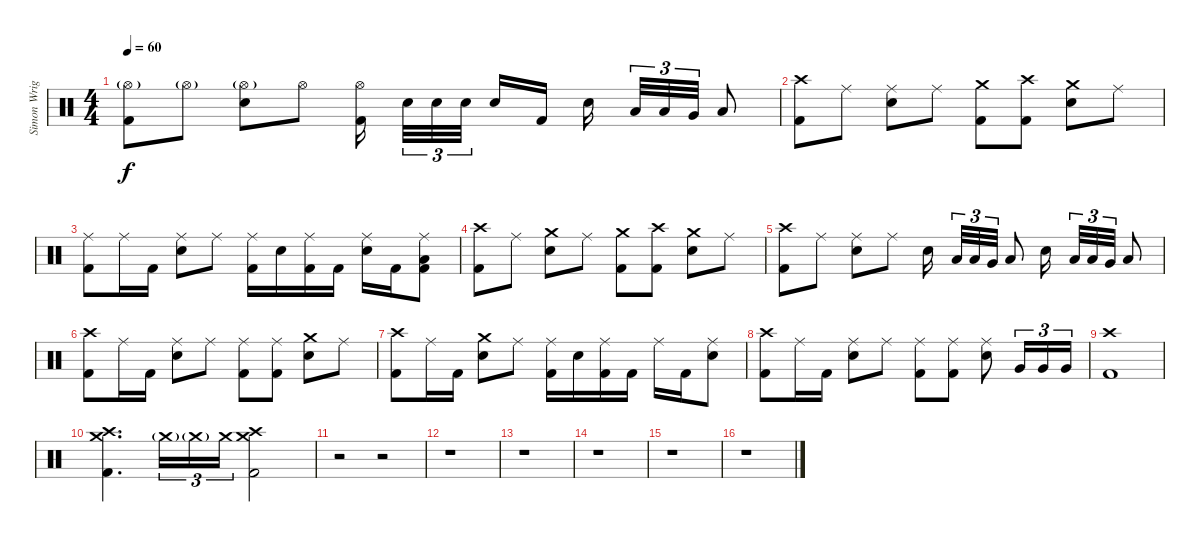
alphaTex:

\track ("Simon Wright" "Simon Wrig") {instrument percussion}
\staff {score}
\articulation defaults
\ts (4 4)
\tempo 60
\clef neutral
\ks c
("Hi-Hat (open)"{g} "Kick (hit) 2").8{dy f} "Hi-Hat (open)"{g}.8 ("Hi-Hat (open)"{g} "Snare (hit) 2").8 "Hi-Hat (open)".8 ("Hi-Hat (open)" "Kick (hit) 2").16 "Snare (hit) 2".32{tu (3 2)} "Snare (hit) 2".32{tu (3 2)} "Snare (hit) 2".32{tu (3 2)} "Snare (hit) 2".16 "Kick (hit) 2".16 "Snare (hit) 2".16 "Low Tom (hit)".32{tu (3 2)} "Low Tom (hit)".32{tu (3 2)} "Very Low Tom (hit)".32{tu (3 2)} "Low Floor Tom (hit)".8 |
("Crash high (hit)" "Kick (hit) 2").8 "Ride (middle)".8 ("Ride (middle)" "Snare (hit) 2").8 "Ride (middle)".8 ("Crash medium (hit)" "Kick (hit) 2").8 ("Crash high (hit)" "Kick (hit) 2").8 ("Crash medium (hit)" "Snare (hit) 2").8 "Ride (middle)".8 |
("Ride (middle)" "Kick (hit) 2").8 "Ride (middle)".16 "Kick (hit) 2".16 ("Ride (middle)" "Snare (hit) 2").8 "Ride (middle)".8 ("Ride (middle)" "Kick (hit) 2").16 "Snare (hit) 2".16 ("Ride (middle)" "Kick (hit) 2").16 "Kick (hit) 2".16 ("Ride (middle)" "Snare (hit) 2").16 "Kick (hit) 2".16 ("Ride (middle)" "Low Floor Tom (hit)" "Kick (hit) 2").8 |
("Crash high (hit)" "Kick (hit) 2").8 "Ride (middle)".8 ("Crash medium (hit)" "Snare (hit) 2").8 "Ride (middle)".8 ("Crash medium (hit)" "Kick (hit) 2").8 ("Crash high (hit)" "Kick (hit) 2").8 ("Crash medium (hit)" "Snare (hit) 2").8 "Ride (middle)".8 |
("Crash high (hit)" "Kick (hit) 2").8 "Ride (middle)".8 ("Ride (middle)" "Snare (hit) 2").8 "Ride (middle)".8 "Snare (hit) 2".16 "Low Tom (hit)".32{tu (3 2)} "Low Tom (hit)".32{tu (3 2)} "Very Low Tom (hit)".32{tu (3 2)} "Low Floor Tom (hit)".8 "Snare (hit) 2".16 "Low Tom (hit)".32{tu (3 2)} "Low Tom (hit)".32{tu (3 2)} "Very Low Tom (hit)".32{tu (3 2)} "Low Floor Tom (hit)".8 |
("Crash high (hit)" "Kick (hit) 2").8 "Ride (middle)".16 "Kick (hit) 2".16 ("Ride (middle)" "Snare (hit) 2").8 "Ride (middle)".8 ("Ride (middle)" "Kick (hit) 2").8 ("Ride (middle)" "Kick (hit) 2").8 ("Crash medium (hit)" "Snare (hit) 2").8 "Ride (middle)".8 |
("Crash high (hit)" "Kick (hit) 2").8 "Ride (middle)".16 "Kick (hit) 2".16 ("Crash medium (hit)" "Snare (hit) 2").8 "Ride (middle)".8 ("Ride (middle)" "Kick (hit) 2").16 "Snare (hit) 2".16 ("Ride (middle)" "Kick (hit) 2").16 "Kick (hit) 2".16 "Ride (middle)".16 "Kick (hit) 2".16 ("Ride (middle)" "Snare (hit) 2").8 |
("Crash high (hit)" "Kick (hit) 2").8 "Ride (middle)".16 "Kick (hit) 2".16 ("Ride (middle)" "Snare (hit) 2").8 "Ride (middle)".8 ("Ride (middle)" "Kick (hit) 2").8 ("Ride (middle)" "Kick (hit) 2").8 ("Ride (middle)" "Snare (hit) 2").8 "Very Low Tom (hit)".16{tu (3 2)} "Very Low Tom (hit)".16{tu (3 2)} "Very Low Tom (hit)".16{tu (3 2)} |
("Crash high (hit)" "Kick (hit) 2").1 |
("Crash medium (hit)" "Crash high (hit)" "Kick (hit) 2").4{d} "Crash medium (hit)"{g}.16{tu (3 2)} "Crash medium (hit)"{g}.16{tu (3 2)} "Crash medium (hit)".16{tu (3 2)} ("Crash medium (hit)" "Crash high (hit)" "Kick (hit) 2").2 |
r.2 r.2 |
r.1 |
r.1 |
r.1 |
r.1 |
r.1
